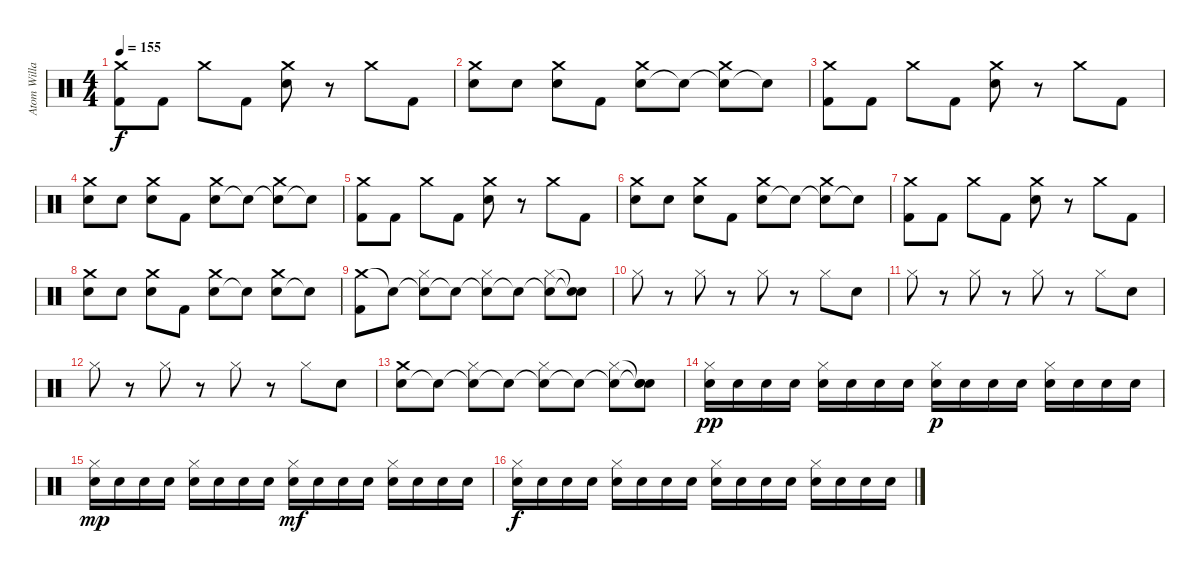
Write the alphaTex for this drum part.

\track ("Atom Willard Drums" "Atom Willa") {instrument percussion}
\staff {score}
\articulation defaults
\ts (4 4)
\tempo 155
\clef neutral
\ks c
("Kick (hit) 2" "Crash medium (hit)").8{dy f} "Kick (hit) 2".8 "Crash medium (hit)".8 "Kick (hit) 2".8 ("Electric Snare (hit)" "Crash medium (hit)").8 r.8 "Crash medium (hit)".8 "Kick (hit) 2".8 |
("Snare (hit)" "Crash medium (hit)").8 "Electric Snare (hit)".8 ("Snare (hit)" "Crash medium (hit)").8 "Kick (hit) 2".8 ("Electric Snare (hit)" "Crash medium (hit)").8 "Snare (hit)"{t}.8 ("Snare (hit)"{t} "Crash medium (hit)").8 "Snare (hit)"{t}.8 |
("Kick (hit) 2" "Crash medium (hit)").8 "Kick (hit) 2".8 "Crash medium (hit)".8 "Kick (hit) 2".8 ("Electric Snare (hit)" "Crash medium (hit)").8 r.8 "Crash medium (hit)".8 "Kick (hit) 2".8 |
("Snare (hit)" "Crash medium (hit)").8 "Electric Snare (hit)".8 ("Snare (hit)" "Crash medium (hit)").8 "Kick (hit) 2".8 ("Electric Snare (hit)" "Crash medium (hit)").8 "Snare (hit)"{t}.8 ("Snare (hit)"{t} "Crash medium (hit)").8 "Snare (hit)"{t}.8 |
("Kick (hit) 2" "Crash medium (hit)").8 "Kick (hit) 2".8 "Crash medium (hit)".8 "Kick (hit) 2".8 ("Electric Snare (hit)" "Crash medium (hit)").8 r.8 "Crash medium (hit)".8 "Kick (hit) 2".8 |
("Snare (hit)" "Crash medium (hit)").8 "Electric Snare (hit)".8 ("Snare (hit)" "Crash medium (hit)").8 "Kick (hit) 2".8 ("Electric Snare (hit)" "Crash medium (hit)").8 "Snare (hit)"{t}.8 ("Snare (hit)"{t} "Crash medium (hit)").8 "Snare (hit)"{t}.8 |
("Kick (hit) 2" "Crash medium (hit)").8 "Kick (hit) 2".8 "Crash medium (hit)".8 "Kick (hit) 2".8 ("Electric Snare (hit)" "Crash medium (hit)").8 r.8 "Crash medium (hit)".8 "Kick (hit) 2".8 |
("Snare (hit)" "Crash medium (hit)").8 "Electric Snare (hit)".8 ("Snare (hit)" "Crash medium (hit)").8 "Kick (hit) 2".8 ("Electric Snare (hit)" "Crash medium (hit)").8 "Snare (hit)"{t}.8 ("Electric Snare (hit)" "Crash medium (hit)").8 "Snare (hit)"{t}.8 |
("Crash medium (hit)" "Kick (hit) 2").8 "Snare (hit)"{t}.8 ("Snare (hit)"{t} "Hi-Hat (closed)").8 "Snare (hit)"{t}.8 ("Snare (hit)"{t} "Hi-Hat (closed)").8 "Snare (hit)"{t}.8 ("Snare (hit)"{t} "Hi-Hat (closed)").8 ("Snare (hit)"{t} "Snare (hit)"{t}).8 |
"Hi-Hat (closed)".8 r.8 "Hi-Hat (closed)".8 r.8 "Hi-Hat (closed)".8 r.8 "Hi-Hat (closed)".8 "Snare (hit)".8 |
"Hi-Hat (closed)".8 r.8 "Hi-Hat (closed)".8 r.8 "Hi-Hat (closed)".8 r.8 "Hi-Hat (closed)".8 "Snare (hit)".8 |
"Hi-Hat (closed)".8 r.8 "Hi-Hat (closed)".8 r.8 "Hi-Hat (closed)".8 r.8 "Hi-Hat (closed)".8 "Snare (hit)".8 |
("Electric Snare (hit)" "Crash medium (hit)").8 "Snare (hit)"{t}.8 ("Snare (hit)"{t} "Hi-Hat (closed)").8 "Snare (hit)"{t}.8 ("Snare (hit)"{t} "Hi-Hat (closed)").8 "Snare (hit)"{t}.8 ("Snare (hit)"{t} "Hi-Hat (closed)").8 ("Snare (hit)"{t} "Snare (hit)"{t} "Snare (hit)").8 |
("Electric Snare (hit)" "Hi-Hat (closed)").16{dy pp} "Electric Snare (hit)".16 "Electric Snare (hit)".16 "Electric Snare (hit)".16 ("Electric Snare (hit)" "Hi-Hat (closed)").16 "Electric Snare (hit)".16 "Electric Snare (hit)".16 "Electric Snare (hit)".16 ("Electric Snare (hit)" "Hi-Hat (closed)").16{dy p} "Electric Snare (hit)".16 "Electric Snare (hit)".16 "Electric Snare (hit)".16 ("Electric Snare (hit)" "Hi-Hat (closed)").16 "Electric Snare (hit)".16 "Electric Snare (hit)".16 "Electric Snare (hit)".16 |
("Electric Snare (hit)" "Hi-Hat (closed)").16{dy mp} "Electric Snare (hit)".16 "Electric Snare (hit)".16 "Electric Snare (hit)".16 ("Electric Snare (hit)" "Hi-Hat (closed)").16 "Electric Snare (hit)".16 "Electric Snare (hit)".16 "Electric Snare (hit)".16 ("Electric Snare (hit)" "Hi-Hat (closed)").16{dy mf} "Electric Snare (hit)".16 "Electric Snare (hit)".16 "Electric Snare (hit)".16 ("Electric Snare (hit)" "Hi-Hat (closed)").16 "Electric Snare (hit)".16 "Electric Snare (hit)".16 "Electric Snare (hit)".16 |
("Electric Snare (hit)" "Hi-Hat (closed)").16{dy f} "Electric Snare (hit)".16 "Electric Snare (hit)".16 "Electric Snare (hit)".16 ("Electric Snare (hit)" "Hi-Hat (closed)").16 "Electric Snare (hit)".16 "Electric Snare (hit)".16 "Electric Snare (hit)".16 ("Electric Snare (hit)" "Hi-Hat (closed)").16 "Electric Snare (hit)".16 "Electric Snare (hit)".16 "Electric Snare (hit)".16 ("Electric Snare (hit)" "Hi-Hat (closed)").16 "Electric Snare (hit)".16 "Electric Snare (hit)".16 "Electric Snare (hit)".16
